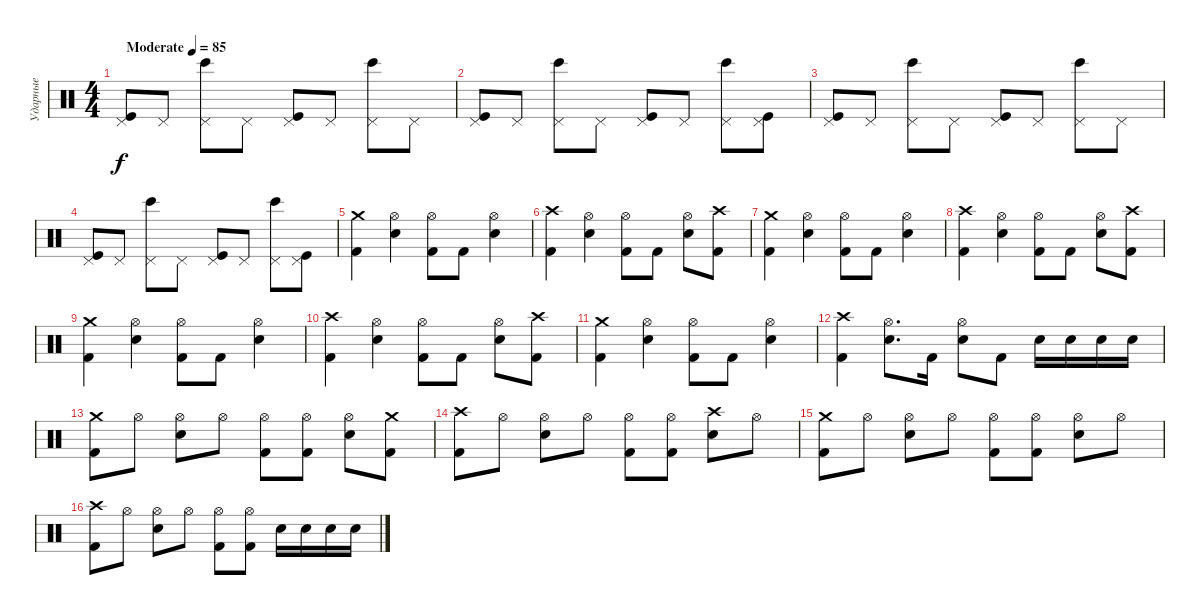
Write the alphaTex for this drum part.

\track ("Ударные" "Ударные") {instrument percussion}
\staff {score}
\articulation defaults
\ts (4 4)
\tempo (85 "Moderate")
\clef neutral
\ks c
("Pedal Hi-Hat (hit)" "Kick (hit)").8{dy f} "Pedal Hi-Hat (hit)".8 ("Pedal Hi-Hat (hit)" "Bongo High (hit)").8 "Pedal Hi-Hat (hit)".8 ("Pedal Hi-Hat (hit)" "Kick (hit)").8 "Pedal Hi-Hat (hit)".8 ("Pedal Hi-Hat (hit)" "Bongo High (hit)").8 "Pedal Hi-Hat (hit)".8 |
("Pedal Hi-Hat (hit)" "Kick (hit)").8 "Pedal Hi-Hat (hit)".8 ("Pedal Hi-Hat (hit)" "Bongo High (hit)").8 "Pedal Hi-Hat (hit)".8 ("Pedal Hi-Hat (hit)" "Kick (hit)").8 "Pedal Hi-Hat (hit)".8 ("Pedal Hi-Hat (hit)" "Bongo High (hit)").8 ("Pedal Hi-Hat (hit)" "Kick (hit)").8 |
("Pedal Hi-Hat (hit)" "Kick (hit)").8 "Pedal Hi-Hat (hit)".8 ("Pedal Hi-Hat (hit)" "Bongo High (hit)").8 "Pedal Hi-Hat (hit)".8 ("Pedal Hi-Hat (hit)" "Kick (hit)").8 "Pedal Hi-Hat (hit)".8 ("Pedal Hi-Hat (hit)" "Bongo High (hit)").8 "Pedal Hi-Hat (hit)".8 |
("Pedal Hi-Hat (hit)" "Kick (hit)").8 "Pedal Hi-Hat (hit)".8 ("Pedal Hi-Hat (hit)" "Bongo High (hit)").8 "Pedal Hi-Hat (hit)".8 ("Pedal Hi-Hat (hit)" "Kick (hit)").8 "Pedal Hi-Hat (hit)".8 ("Pedal Hi-Hat (hit)" "Bongo High (hit)").8 ("Pedal Hi-Hat (hit)" "Kick (hit)").8 |
("Crash medium (hit)" "Kick (hit) 2").4 ("Hi-Hat (open)" "Electric Snare (hit)").4 ("Hi-Hat (open)" "Kick (hit) 2").8 "Kick (hit) 2".8 ("Hi-Hat (open)" "Electric Snare (hit)").4 |
("Crash high (hit)" "Kick (hit) 2").4 ("Hi-Hat (open)" "Electric Snare (hit)").4 ("Hi-Hat (open)" "Kick (hit) 2").8 "Kick (hit) 2".8 ("Hi-Hat (open)" "Electric Snare (hit)").8 ("Crash high (hit)" "Kick (hit) 2").8 |
("Crash medium (hit)" "Kick (hit) 2").4 ("Hi-Hat (open)" "Electric Snare (hit)").4 ("Hi-Hat (open)" "Kick (hit) 2").8 "Kick (hit) 2".8 ("Hi-Hat (open)" "Electric Snare (hit)").4 |
("Crash high (hit)" "Kick (hit) 2").4 ("Hi-Hat (open)" "Electric Snare (hit)").4 ("Hi-Hat (open)" "Kick (hit) 2").8 "Kick (hit) 2".8 ("Hi-Hat (open)" "Electric Snare (hit)").8 ("Crash high (hit)" "Kick (hit) 2").8 |
("Crash medium (hit)" "Kick (hit) 2").4 ("Hi-Hat (open)" "Electric Snare (hit)").4 ("Hi-Hat (open)" "Kick (hit) 2").8 "Kick (hit) 2".8 ("Hi-Hat (open)" "Electric Snare (hit)").4 |
("Crash high (hit)" "Kick (hit) 2").4 ("Hi-Hat (open)" "Electric Snare (hit)").4 ("Hi-Hat (open)" "Kick (hit) 2").8 "Kick (hit) 2".8 ("Hi-Hat (open)" "Electric Snare (hit)").8 ("Crash high (hit)" "Kick (hit) 2").8 |
("Crash medium (hit)" "Kick (hit) 2").4 ("Hi-Hat (open)" "Electric Snare (hit)").4 ("Hi-Hat (open)" "Kick (hit) 2").8 "Kick (hit) 2".8 ("Hi-Hat (open)" "Electric Snare (hit)").4 |
("Crash high (hit)" "Kick (hit) 2").4 ("Hi-Hat (open)" "Electric Snare (hit)").8{d} "Kick (hit) 2".16 ("Hi-Hat (open)" "Electric Snare (hit)").8 "Kick (hit) 2".8 "Electric Snare (hit)".16 "Electric Snare (hit)".16 "Electric Snare (hit)".16 "Electric Snare (hit)".16 |
("Crash medium (hit)" "Kick (hit) 2").8 "Hi-Hat (open)".8 ("Hi-Hat (open)" "Electric Snare (hit)").8 "Hi-Hat (open)".8 ("Hi-Hat (open)" "Kick (hit) 2").8 ("Hi-Hat (open)" "Kick (hit) 2").8 ("Hi-Hat (open)" "Electric Snare (hit)").8 ("Crash medium (hit)" "Kick (hit) 2").8 |
("Crash high (hit)" "Kick (hit) 2").8 "Hi-Hat (open)".8 ("Hi-Hat (open)" "Electric Snare (hit)").8 "Hi-Hat (open)".8 ("Hi-Hat (open)" "Kick (hit) 2").8 ("Hi-Hat (open)" "Kick (hit) 2").8 ("Crash high (hit)" "Electric Snare (hit)").8 "Hi-Hat (open)".8 |
("Crash medium (hit)" "Kick (hit) 2").8 "Hi-Hat (open)".8 ("Hi-Hat (open)" "Electric Snare (hit)").8 "Hi-Hat (open)".8 ("Hi-Hat (open)" "Kick (hit) 2").8 ("Hi-Hat (open)" "Kick (hit) 2").8 ("Hi-Hat (open)" "Electric Snare (hit)").8 "Hi-Hat (open)".8 |
("Crash high (hit)" "Kick (hit) 2").8 "Hi-Hat (open)".8 ("Hi-Hat (open)" "Electric Snare (hit)").8 "Hi-Hat (open)".8 ("Hi-Hat (open)" "Kick (hit) 2").8 ("Hi-Hat (open)" "Kick (hit) 2").8 "Electric Snare (hit)".16 "Electric Snare (hit)".16 "Electric Snare (hit)".16 "Electric Snare (hit)".16
